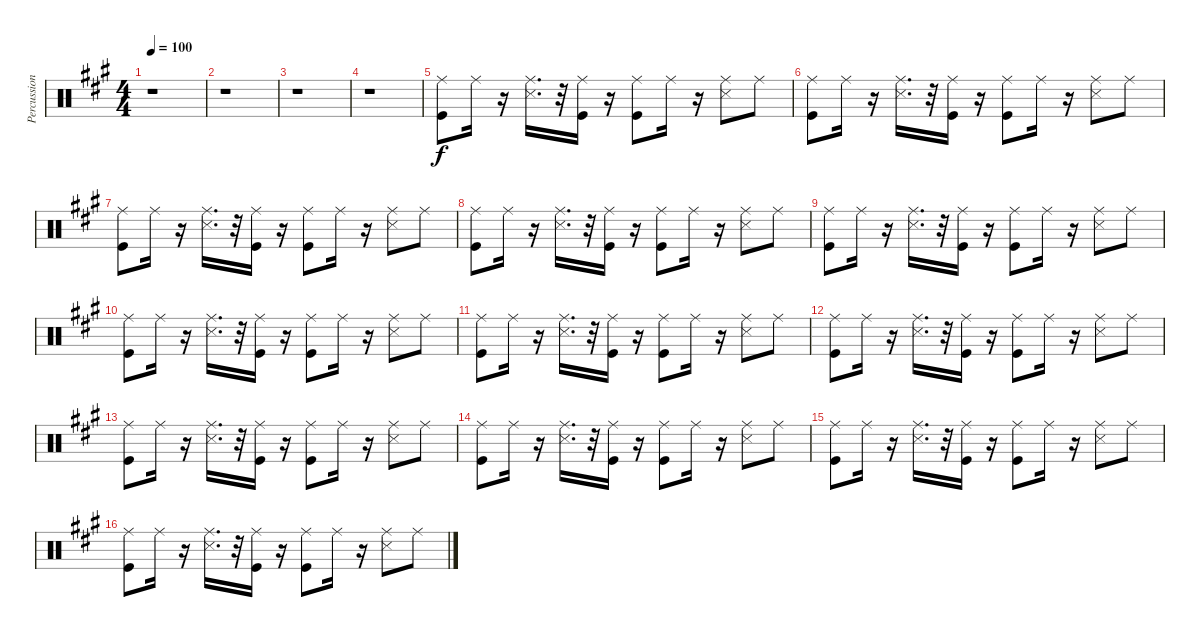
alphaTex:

\track ("Percussion" "Percussion") {instrument percussion}
\staff {score}
\articulation defaults
\ts (4 4)
\tempo 100
\clef neutral
\ks a
r.1{dy f} |
r.1 |
r.1 |
r.1 |
("Kick (hit)" "Ride (middle)").8 "Ride (middle)".16 r.16 ("Snare (side stick) 3" "Ride (middle)").16{d} r.32 ("Ride (middle)" "Kick (hit)").16 r.16 ("Ride (middle)" "Kick (hit)").8 "Ride (middle)".16 r.16 ("Snare (side stick) 3" "Ride (middle)").8 "Ride (middle)".8 |
("Kick (hit)" "Ride (middle)").8 "Ride (middle)".16 r.16 ("Snare (side stick) 3" "Ride (middle)").16{d} r.32 ("Ride (middle)" "Kick (hit)").16 r.16 ("Ride (middle)" "Kick (hit)").8 "Ride (middle)".16 r.16 ("Snare (side stick) 3" "Ride (middle)").8 "Ride (middle)".8 |
("Kick (hit)" "Ride (middle)").8 "Ride (middle)".16 r.16 ("Snare (side stick) 3" "Ride (middle)").16{d} r.32 ("Ride (middle)" "Kick (hit)").16 r.16 ("Ride (middle)" "Kick (hit)").8 "Ride (middle)".16 r.16 ("Snare (side stick) 3" "Ride (middle)").8 "Ride (middle)".8 |
("Kick (hit)" "Ride (middle)").8 "Ride (middle)".16 r.16 ("Snare (side stick) 3" "Ride (middle)").16{d} r.32 ("Ride (middle)" "Kick (hit)").16 r.16 ("Ride (middle)" "Kick (hit)").8 "Ride (middle)".16 r.16 ("Snare (side stick) 3" "Ride (middle)").8 "Ride (middle)".8 |
("Kick (hit)" "Ride (middle)").8 "Ride (middle)".16 r.16 ("Snare (side stick) 3" "Ride (middle)").16{d} r.32 ("Ride (middle)" "Kick (hit)").16 r.16 ("Ride (middle)" "Kick (hit)").8 "Ride (middle)".16 r.16 ("Snare (side stick) 3" "Ride (middle)").8 "Ride (middle)".8 |
("Kick (hit)" "Ride (middle)").8 "Ride (middle)".16 r.16 ("Snare (side stick) 3" "Ride (middle)").16{d} r.32 ("Ride (middle)" "Kick (hit)").16 r.16 ("Ride (middle)" "Kick (hit)").8 "Ride (middle)".16 r.16 ("Snare (side stick) 3" "Ride (middle)").8 "Ride (middle)".8 |
("Kick (hit)" "Ride (middle)").8 "Ride (middle)".16 r.16 ("Snare (side stick) 3" "Ride (middle)").16{d} r.32 ("Ride (middle)" "Kick (hit)").16 r.16 ("Ride (middle)" "Kick (hit)").8 "Ride (middle)".16 r.16 ("Snare (side stick) 3" "Ride (middle)").8 "Ride (middle)".8 |
("Kick (hit)" "Ride (middle)").8 "Ride (middle)".16 r.16 ("Snare (side stick) 3" "Ride (middle)").16{d} r.32 ("Ride (middle)" "Kick (hit)").16 r.16 ("Ride (middle)" "Kick (hit)").8 "Ride (middle)".16 r.16 ("Snare (side stick) 3" "Ride (middle)").8 "Ride (middle)".8 |
("Kick (hit)" "Ride (middle)").8 "Ride (middle)".16 r.16 ("Snare (side stick) 3" "Ride (middle)").16{d} r.32 ("Ride (middle)" "Kick (hit)").16 r.16 ("Ride (middle)" "Kick (hit)").8 "Ride (middle)".16 r.16 ("Snare (side stick) 3" "Ride (middle)").8 "Ride (middle)".8 |
("Kick (hit)" "Ride (middle)").8 "Ride (middle)".16 r.16 ("Snare (side stick) 3" "Ride (middle)").16{d} r.32 ("Ride (middle)" "Kick (hit)").16 r.16 ("Ride (middle)" "Kick (hit)").8 "Ride (middle)".16 r.16 ("Snare (side stick) 3" "Ride (middle)").8 "Ride (middle)".8 |
("Kick (hit)" "Ride (middle)").8 "Ride (middle)".16 r.16 ("Snare (side stick) 3" "Ride (middle)").16{d} r.32 ("Ride (middle)" "Kick (hit)").16 r.16 ("Ride (middle)" "Kick (hit)").8 "Ride (middle)".16 r.16 ("Snare (side stick) 3" "Ride (middle)").8 "Ride (middle)".8 |
("Kick (hit)" "Ride (middle)").8 "Ride (middle)".16 r.16 ("Snare (side stick) 3" "Ride (middle)").16{d} r.32 ("Ride (middle)" "Kick (hit)").16 r.16 ("Ride (middle)" "Kick (hit)").8 "Ride (middle)".16 r.16 ("Snare (side stick) 3" "Ride (middle)").8 "Ride (middle)".8
